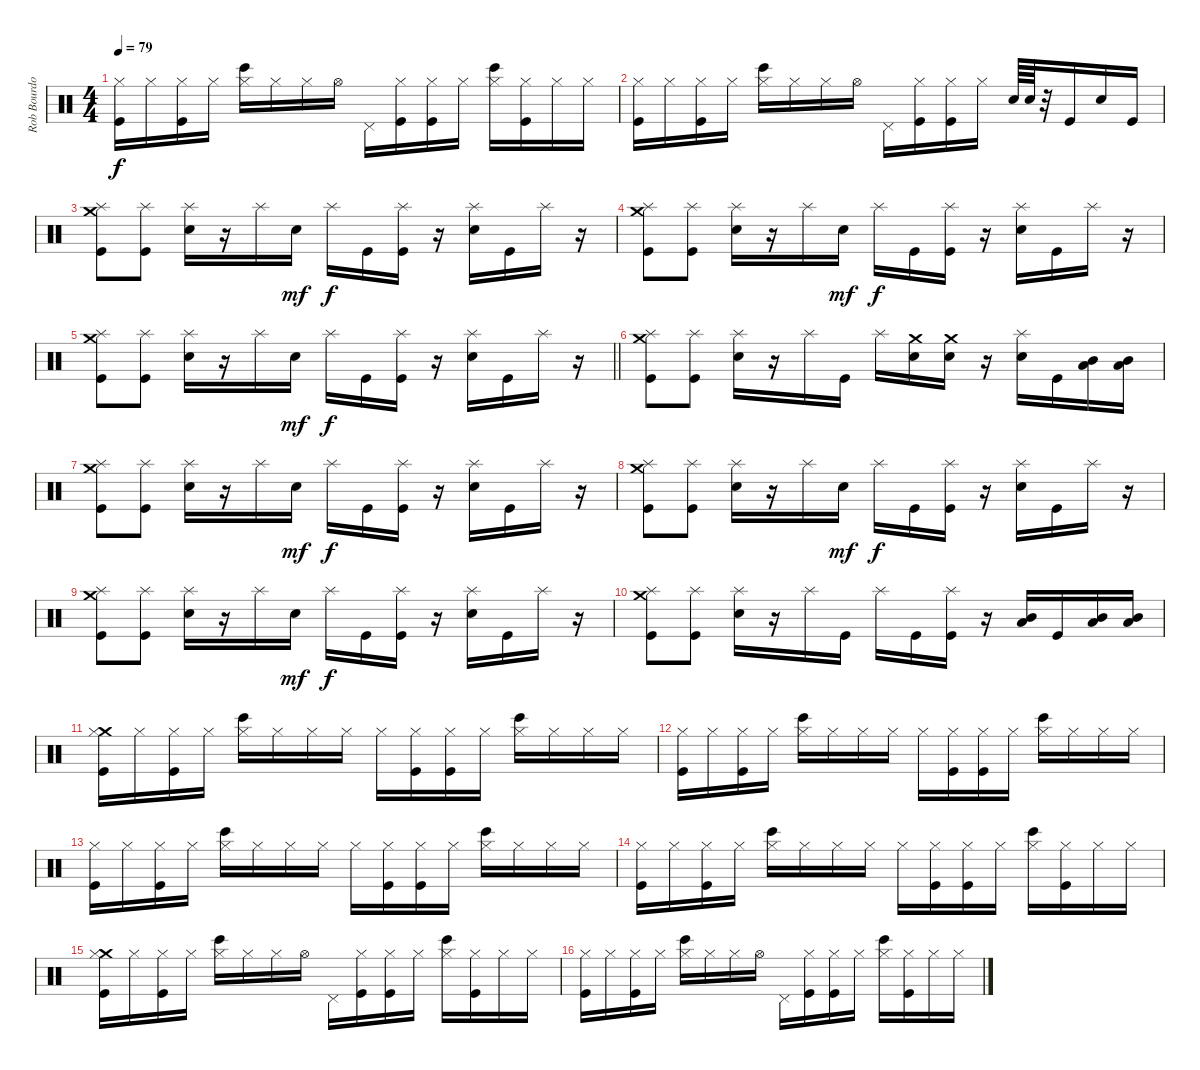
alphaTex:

\track ("Rob Bourdon - Drums" "Rob Bourdo") {instrument percussion}
\staff {score}
\articulation defaults
\ts (4 4)
\tempo 79
\clef neutral
\ks c
("Hi-Hat (closed)" "Kick (hit)").16{dy f} "Hi-Hat (closed)".16 ("Hi-Hat (closed)" "Kick (hit)").16 "Hi-Hat (closed)".16 ("Hi-Hat (closed)" "Bongo High (hit)").16 "Hi-Hat (closed)".16 "Hi-Hat (closed)".16 "Hi-Hat (open)".16 "Pedal Hi-Hat (hit)".16 ("Hi-Hat (closed)" "Kick (hit)").16 ("Hi-Hat (closed)" "Kick (hit)").16 "Hi-Hat (closed)".16 ("Hi-Hat (closed)" "Bongo High (hit)").16 ("Hi-Hat (closed)" "Kick (hit)").16 "Hi-Hat (closed)".16 "Hi-Hat (closed)".16 |
("Hi-Hat (closed)" "Kick (hit)").16 "Hi-Hat (closed)".16 ("Hi-Hat (closed)" "Kick (hit)").16 "Hi-Hat (closed)".16 ("Hi-Hat (closed)" "Bongo High (hit)").16 "Hi-Hat (closed)".16 "Hi-Hat (closed)".16 "Hi-Hat (open)".16 "Pedal Hi-Hat (hit)".16 ("Hi-Hat (closed)" "Kick (hit)").16 ("Hi-Hat (closed)" "Kick (hit)").16 "Hi-Hat (closed)".16 "Electric Snare (hit)".64 "Electric Snare (hit)".64 r.32 "Kick (hit)".16 "Electric Snare (hit)".16 "Kick (hit)".16 |
("Crash medium (hit)" "Splash (hit)" "Kick (hit)").8 ("Splash (hit)" "Kick (hit)").8 ("Splash (hit)" "Electric Snare (hit)").16 r.16 "Splash (hit)".16 "Electric Snare (hit)".16{dy mf} "Splash (hit)".16{dy f} "Kick (hit)".16 ("Splash (hit)" "Kick (hit)").16 r.16 ("Splash (hit)" "Electric Snare (hit)").16 "Kick (hit)".16 "Splash (hit)".16 r.16 |
("Crash medium (hit)" "Splash (hit)" "Kick (hit)").8 ("Splash (hit)" "Kick (hit)").8 ("Splash (hit)" "Electric Snare (hit)").16 r.16 "Splash (hit)".16 "Electric Snare (hit)".16{dy mf} "Splash (hit)".16{dy f} "Kick (hit)".16 ("Splash (hit)" "Kick (hit)").16 r.16 ("Splash (hit)" "Electric Snare (hit)").16 "Kick (hit)".16 "Splash (hit)".16 r.16 |
\barLineRight lightlight
("Crash medium (hit)" "Splash (hit)" "Kick (hit)").8 ("Splash (hit)" "Kick (hit)").8 ("Splash (hit)" "Electric Snare (hit)").16 r.16 "Splash (hit)".16 "Electric Snare (hit)".16{dy mf} "Splash (hit)".16{dy f} "Kick (hit)".16 ("Splash (hit)" "Kick (hit)").16 r.16 ("Splash (hit)" "Electric Snare (hit)").16 "Kick (hit)".16 "Splash (hit)".16 r.16 |
("Crash medium (hit)" "Splash (hit)" "Kick (hit)").8 ("Splash (hit)" "Kick (hit)").8 ("Splash (hit)" "Electric Snare (hit)").16 r.16 "Splash (hit)".16 "Kick (hit)".16 "Splash (hit)".16 ("Crash medium (hit)" "Electric Snare (hit)").16 ("Crash medium (hit)" "Electric Snare (hit)").16 r.16 ("Splash (hit)" "Electric Snare (hit)").16 "Kick (hit)".16 ("Mid Tom (hit)" "Low Tom (hit)").16 ("Mid Tom (hit)" "Low Tom (hit)").16 |
("Crash medium (hit)" "Splash (hit)" "Kick (hit)").8 ("Splash (hit)" "Kick (hit)").8 ("Splash (hit)" "Electric Snare (hit)").16 r.16 "Splash (hit)".16 "Electric Snare (hit)".16{dy mf} "Splash (hit)".16{dy f} "Kick (hit)".16 ("Splash (hit)" "Kick (hit)").16 r.16 ("Splash (hit)" "Electric Snare (hit)").16 "Kick (hit)".16 "Splash (hit)".16 r.16 |
("Crash medium (hit)" "Splash (hit)" "Kick (hit)").8 ("Splash (hit)" "Kick (hit)").8 ("Splash (hit)" "Electric Snare (hit)").16 r.16 "Splash (hit)".16 "Electric Snare (hit)".16{dy mf} "Splash (hit)".16{dy f} "Kick (hit)".16 ("Splash (hit)" "Kick (hit)").16 r.16 ("Splash (hit)" "Electric Snare (hit)").16 "Kick (hit)".16 "Splash (hit)".16 r.16 |
("Crash medium (hit)" "Splash (hit)" "Kick (hit)").8 ("Splash (hit)" "Kick (hit)").8 ("Splash (hit)" "Electric Snare (hit)").16 r.16 "Splash (hit)".16 "Electric Snare (hit)".16{dy mf} "Splash (hit)".16{dy f} "Kick (hit)".16 ("Splash (hit)" "Kick (hit)").16 r.16 ("Splash (hit)" "Electric Snare (hit)").16 "Kick (hit)".16 "Splash (hit)".16 r.16 |
("Crash medium (hit)" "Splash (hit)" "Kick (hit)").8 ("Splash (hit)" "Kick (hit)").8 ("Splash (hit)" "Electric Snare (hit)").16 r.16 "Splash (hit)".16 "Kick (hit)".16 "Splash (hit)".16 "Kick (hit)".16 ("Splash (hit)" "Kick (hit)").16 r.16 ("Mid Tom (hit)" "Low Tom (hit)").16 "Kick (hit)".16 ("Mid Tom (hit)" "Low Tom (hit)").16 ("Mid Tom (hit)" "Low Tom (hit)").16 |
("Crash medium (hit)" "Hi-Hat (closed)" "Kick (hit)").16 "Hi-Hat (closed)".16 ("Hi-Hat (closed)" "Kick (hit)").16 "Hi-Hat (closed)".16 ("Hi-Hat (closed)" "Bongo High (hit)").16 "Hi-Hat (closed)".16 "Hi-Hat (closed)".16 "Hi-Hat (closed)".16 "Hi-Hat (closed)".16 ("Hi-Hat (closed)" "Kick (hit)").16 ("Hi-Hat (closed)" "Kick (hit)").16 "Hi-Hat (closed)".16 ("Hi-Hat (closed)" "Bongo High (hit)").16 "Hi-Hat (closed)".16 "Hi-Hat (closed)".16 "Hi-Hat (closed)".16 |
("Hi-Hat (closed)" "Kick (hit)").16 "Hi-Hat (closed)".16 ("Hi-Hat (closed)" "Kick (hit)").16 "Hi-Hat (closed)".16 ("Hi-Hat (closed)" "Bongo High (hit)").16 "Hi-Hat (closed)".16 "Hi-Hat (closed)".16 "Hi-Hat (closed)".16 "Hi-Hat (closed)".16 ("Hi-Hat (closed)" "Kick (hit)").16 ("Hi-Hat (closed)" "Kick (hit)").16 "Hi-Hat (closed)".16 ("Hi-Hat (closed)" "Bongo High (hit)").16 "Hi-Hat (closed)".16 "Hi-Hat (closed)".16 "Hi-Hat (closed)".16 |
("Hi-Hat (closed)" "Kick (hit)").16 "Hi-Hat (closed)".16 ("Hi-Hat (closed)" "Kick (hit)").16 "Hi-Hat (closed)".16 ("Hi-Hat (closed)" "Bongo High (hit)").16 "Hi-Hat (closed)".16 "Hi-Hat (closed)".16 "Hi-Hat (closed)".16 "Hi-Hat (closed)".16 ("Hi-Hat (closed)" "Kick (hit)").16 ("Hi-Hat (closed)" "Kick (hit)").16 "Hi-Hat (closed)".16 ("Hi-Hat (closed)" "Bongo High (hit)").16 "Hi-Hat (closed)".16 "Hi-Hat (closed)".16 "Hi-Hat (closed)".16 |
("Hi-Hat (closed)" "Kick (hit)").16 "Hi-Hat (closed)".16 ("Hi-Hat (closed)" "Kick (hit)").16 "Hi-Hat (closed)".16 ("Hi-Hat (closed)" "Bongo High (hit)").16 "Hi-Hat (closed)".16 "Hi-Hat (closed)".16 "Hi-Hat (closed)".16 "Hi-Hat (closed)".16 ("Hi-Hat (closed)" "Kick (hit)").16 ("Hi-Hat (closed)" "Kick (hit)").16 "Hi-Hat (closed)".16 ("Hi-Hat (closed)" "Bongo High (hit)").16 ("Hi-Hat (closed)" "Kick (hit)").16 "Hi-Hat (closed)".16 "Hi-Hat (closed)".16 |
("Crash medium (hit)" "Hi-Hat (closed)" "Kick (hit)").16 "Hi-Hat (closed)".16 ("Hi-Hat (closed)" "Kick (hit)").16 "Hi-Hat (closed)".16 ("Hi-Hat (closed)" "Bongo High (hit)").16 "Hi-Hat (closed)".16 "Hi-Hat (closed)".16 "Hi-Hat (open)".16 "Pedal Hi-Hat (hit)".16 ("Hi-Hat (closed)" "Kick (hit)").16 ("Hi-Hat (closed)" "Kick (hit)").16 "Hi-Hat (closed)".16 ("Hi-Hat (closed)" "Bongo High (hit)").16 ("Hi-Hat (closed)" "Kick (hit)").16 "Hi-Hat (closed)".16 "Hi-Hat (closed)".16 |
("Hi-Hat (closed)" "Kick (hit)").16 "Hi-Hat (closed)".16 ("Hi-Hat (closed)" "Kick (hit)").16 "Hi-Hat (closed)".16 ("Hi-Hat (closed)" "Bongo High (hit)").16 "Hi-Hat (closed)".16 "Hi-Hat (closed)".16 "Hi-Hat (open)".16 "Pedal Hi-Hat (hit)".16 ("Hi-Hat (closed)" "Kick (hit)").16 ("Hi-Hat (closed)" "Kick (hit)").16 "Hi-Hat (closed)".16 ("Hi-Hat (closed)" "Bongo High (hit)").16 ("Hi-Hat (closed)" "Kick (hit)").16 "Hi-Hat (closed)".16 "Hi-Hat (closed)".16
